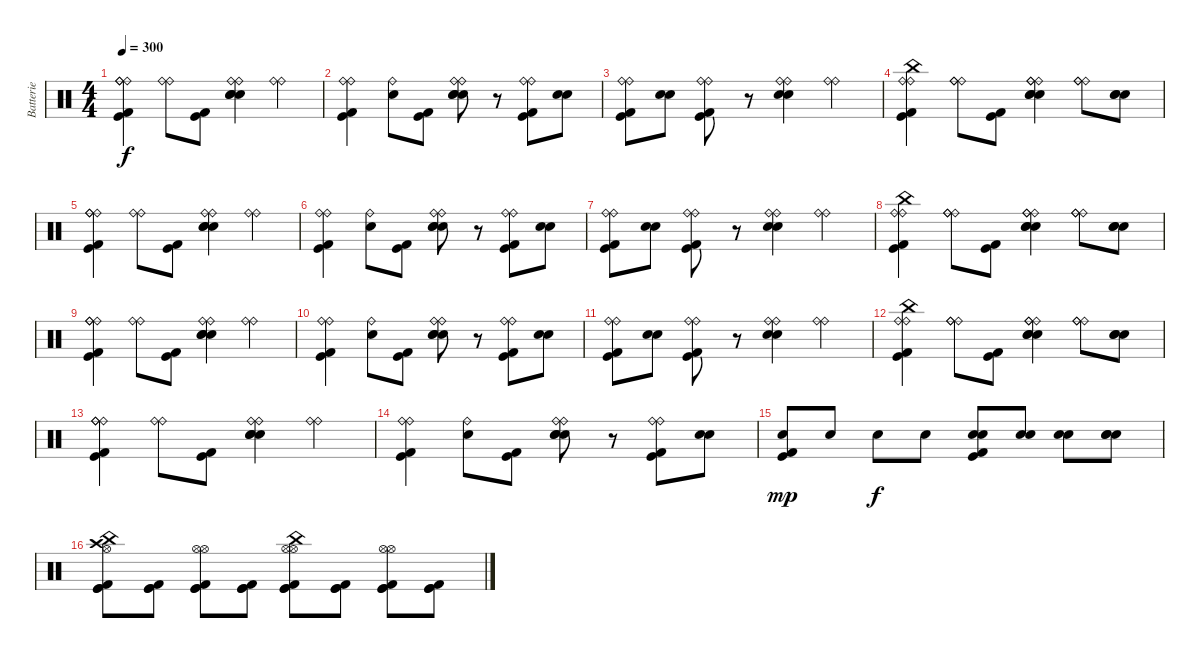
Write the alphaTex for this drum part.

\track ("Batterie" "Batterie") {instrument percussion}
\staff {score}
\articulation defaults
\ts (4 4)
\tempo 300
\clef neutral
\ks c
("Ride (bell)" "Ride (bell)" "Ride (bell)" "Kick (hit)" "Kick (hit) 2").4{dy f} ("Ride (bell)" "Ride (bell)").8 ("Kick (hit)" "Kick (hit) 2").8 ("Ride (bell)" "Ride (bell)" "Snare (hit) 2" "Snare (hit) 2" "Snare (hit) 2").4 ("Ride (bell)" "Ride (bell)").4 |
("Ride (bell)" "Ride (bell)" "Kick (hit)" "Kick (hit) 2").4 ("Snare (hit)" "Ride (bell)").8 ("Kick (hit)" "Kick (hit) 2").8 ("Ride (bell)" "Ride (bell)" "Snare (hit) 2" "Snare (hit) 2" "Snare (hit) 2").8 r.8 ("Ride (bell)" "Ride (bell)" "Kick (hit) 2" "Kick (hit)").8 ("Snare (hit) 2" "Snare (hit) 2").8 |
("Ride (bell)" "Ride (bell)" "Kick (hit)" "Kick (hit) 2").8 ("Snare (hit) 2" "Snare (hit) 2").8 ("Ride (bell)" "Ride (bell)" "Kick (hit)" "Kick (hit) 2").8 r.8 ("Ride (bell)" "Ride (bell)" "Snare (hit) 2" "Snare (hit) 2").4 ("Ride (bell)" "Ride (bell)").4 |
("Ride (bell)" "Ride (bell)" "China (hit)" "Kick (hit)" "Kick (hit) 2").4 ("Ride (bell)" "Ride (bell)" "Ride (bell)").8 ("Kick (hit)" "Kick (hit) 2").8 ("Ride (bell)" "Ride (bell)" "Ride (bell)" "Snare (hit) 2" "Snare (hit) 2" "Snare (hit) 2").4 ("Ride (bell)" "Ride (bell)" "Ride (bell)").8 ("Snare (hit) 2" "Snare (hit) 2" "Snare (hit) 2").8 |
("Ride (bell)" "Ride (bell)" "Ride (bell)" "Kick (hit)" "Kick (hit) 2").4 ("Ride (bell)" "Ride (bell)").8 ("Kick (hit)" "Kick (hit) 2").8 ("Ride (bell)" "Ride (bell)" "Snare (hit) 2" "Snare (hit) 2" "Snare (hit) 2").4 ("Ride (bell)" "Ride (bell)").4 |
("Ride (bell)" "Ride (bell)" "Kick (hit)" "Kick (hit) 2").4 ("Snare (hit)" "Ride (bell)").8 ("Kick (hit)" "Kick (hit) 2").8 ("Ride (bell)" "Ride (bell)" "Snare (hit) 2" "Snare (hit) 2" "Snare (hit) 2").8 r.8 ("Ride (bell)" "Ride (bell)" "Kick (hit) 2" "Kick (hit)").8 ("Snare (hit) 2" "Snare (hit) 2").8 |
("Ride (bell)" "Ride (bell)" "Kick (hit)" "Kick (hit) 2").8 ("Snare (hit) 2" "Snare (hit) 2").8 ("Ride (bell)" "Ride (bell)" "Kick (hit)" "Kick (hit) 2").8 r.8 ("Ride (bell)" "Ride (bell)" "Snare (hit) 2" "Snare (hit) 2").4 ("Ride (bell)" "Ride (bell)").4 |
("Ride (bell)" "Ride (bell)" "China (hit)" "Kick (hit)" "Kick (hit) 2").4 ("Ride (bell)" "Ride (bell)" "Ride (bell)").8 ("Kick (hit)" "Kick (hit) 2").8 ("Ride (bell)" "Ride (bell)" "Ride (bell)" "Snare (hit) 2" "Snare (hit) 2" "Snare (hit) 2").4 ("Ride (bell)" "Ride (bell)" "Ride (bell)").8 ("Snare (hit) 2" "Snare (hit) 2" "Snare (hit) 2").8 |
("Ride (bell)" "Ride (bell)" "Ride (bell)" "Kick (hit)" "Kick (hit) 2").4 ("Ride (bell)" "Ride (bell)").8 ("Kick (hit)" "Kick (hit) 2").8 ("Ride (bell)" "Ride (bell)" "Snare (hit) 2" "Snare (hit) 2" "Snare (hit) 2").4 ("Ride (bell)" "Ride (bell)").4 |
("Ride (bell)" "Ride (bell)" "Kick (hit)" "Kick (hit) 2").4 ("Snare (hit)" "Ride (bell)").8 ("Kick (hit)" "Kick (hit) 2").8 ("Ride (bell)" "Ride (bell)" "Snare (hit) 2" "Snare (hit) 2" "Snare (hit) 2").8 r.8 ("Ride (bell)" "Ride (bell)" "Kick (hit) 2" "Kick (hit)").8 ("Snare (hit) 2" "Snare (hit) 2").8 |
("Ride (bell)" "Ride (bell)" "Kick (hit)" "Kick (hit) 2").8 ("Snare (hit) 2" "Snare (hit) 2").8 ("Ride (bell)" "Ride (bell)" "Kick (hit)" "Kick (hit) 2").8 r.8 ("Ride (bell)" "Ride (bell)" "Snare (hit) 2" "Snare (hit) 2").4 ("Ride (bell)" "Ride (bell)").4 |
("Ride (bell)" "Ride (bell)" "China (hit)" "Kick (hit)" "Kick (hit) 2").4 ("Ride (bell)" "Ride (bell)" "Ride (bell)").8 ("Kick (hit)" "Kick (hit) 2").8 ("Ride (bell)" "Ride (bell)" "Ride (bell)" "Snare (hit) 2" "Snare (hit) 2" "Snare (hit) 2").4 ("Ride (bell)" "Ride (bell)" "Ride (bell)").8 ("Snare (hit) 2" "Snare (hit) 2" "Snare (hit) 2").8 |
("Ride (bell)" "Ride (bell)" "Ride (bell)" "Kick (hit)" "Kick (hit) 2").4 ("Ride (bell)" "Ride (bell)").8 ("Kick (hit)" "Kick (hit) 2").8 ("Ride (bell)" "Ride (bell)" "Snare (hit) 2" "Snare (hit) 2" "Snare (hit) 2").4 ("Ride (bell)" "Ride (bell)").4 |
("Ride (bell)" "Ride (bell)" "Kick (hit)" "Kick (hit) 2").4 ("Snare (hit)" "Ride (bell)").8 ("Kick (hit)" "Kick (hit) 2").8 ("Ride (bell)" "Ride (bell)" "Snare (hit) 2" "Snare (hit) 2" "Snare (hit) 2").8 r.8 ("Ride (bell)" "Ride (bell)" "Kick (hit) 2" "Kick (hit)").8 ("Snare (hit) 2" "Snare (hit) 2").8 |
("Snare (hit) 2" "Kick (hit)" "Kick (hit) 2").8{dy mp} "Snare (hit) 2".8 "Snare (hit) 2".8{dy f} "Snare (hit) 2".8 ("Snare (hit) 2" "Snare (hit) 2" "Kick (hit)" "Kick (hit) 2").8 ("Snare (hit) 2" "Snare (hit) 2").8 ("Snare (hit) 2" "Snare (hit) 2").8 ("Snare (hit) 2" "Snare (hit) 2" "Snare (hit) 2").8 |
("Kick (hit)" "Hi-Hat (open)" "Crash high (hit)" "China (hit)" "Kick (hit)" "Kick (hit) 2").8 ("Kick (hit)" "Kick (hit) 2" "Kick (hit)").8 ("Kick (hit)" "Hi-Hat (open)" "Hi-Hat (open)" "Kick (hit) 2" "Kick (hit)").8 ("Kick (hit)" "Kick (hit) 2" "Kick (hit)").8 ("Kick (hit)" "Hi-Hat (open)" "China (hit)" "Hi-Hat (open)" "Kick (hit) 2" "Kick (hit)").8 ("Kick (hit)" "Kick (hit)" "Kick (hit) 2").8 ("Kick (hit)" "Hi-Hat (open)" "Hi-Hat (open)" "Kick (hit) 2" "Kick (hit)").8 ("Kick (hit)" "Kick (hit)" "Kick (hit) 2").8
